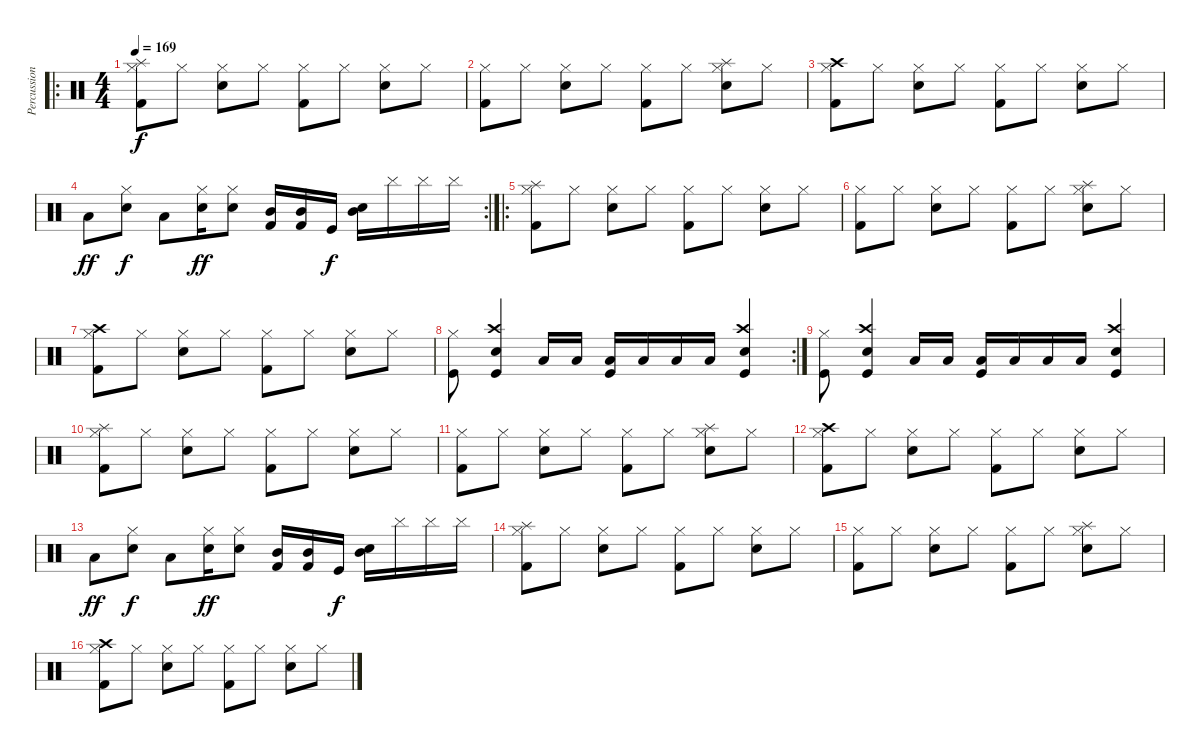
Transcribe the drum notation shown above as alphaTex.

\track ("Percussion" "Percussion") {instrument percussion}
\staff {score}
\articulation defaults
\ro
\ts (4 4)
\tempo 169
\clef neutral
\ks c
("Hi-Hat (closed)" "Kick (hit) 2" "Splash (hit)").8{dy f} "Hi-Hat (closed)".8 ("Hi-Hat (closed)" "Snare (hit) 2").8 "Hi-Hat (closed)".8 ("Hi-Hat (closed)" "Kick (hit) 2").8 "Hi-Hat (closed)".8 ("Hi-Hat (closed)" "Snare (hit) 2").8 "Hi-Hat (closed)".8 |
("Hi-Hat (closed)" "Kick (hit) 2").8 "Hi-Hat (closed)".8 ("Hi-Hat (closed)" "Snare (hit) 2").8 "Hi-Hat (closed)".8 ("Hi-Hat (closed)" "Kick (hit) 2").8 "Hi-Hat (closed)".8 ("Hi-Hat (closed)" "Snare (hit) 2" "Splash (hit)").8 "Hi-Hat (closed)".8 |
("Hi-Hat (closed)" "Kick (hit) 2" "Crash high (hit)").8 "Hi-Hat (closed)".8 ("Hi-Hat (closed)" "Snare (hit) 2").8 "Hi-Hat (closed)".8 ("Hi-Hat (closed)" "Kick (hit) 2").8 "Hi-Hat (closed)".8 ("Hi-Hat (closed)" "Snare (hit) 2").8 "Hi-Hat (closed)".8 |
\rc 2 "Low Tom (hit)".8{dy ff}
("Hi-Hat (closed)" "Electric Snare (hit)").8{dy f} "Low Tom (hit)".8 ("Electric Snare (hit)" "Hi-Hat (closed)").16{dy ff} ("Electric Snare (hit)" "Hi-Hat (closed)").8 ("Kick (hit) 2" "Mid Tom (hit)").16 ("Kick (hit) 2" "Mid Tom (hit)").16 "Kick (hit)".16{dy f} ("Electric Snare (hit)" "Mid Tom (hit)").16 "Cymbal (hit)".16 "Cymbal (hit)".16 "Cymbal (hit)".16 |
\ro
("Hi-Hat (closed)" "Kick (hit) 2" "Splash (hit)").8 "Hi-Hat (closed)".8 ("Hi-Hat (closed)" "Snare (hit) 2").8 "Hi-Hat (closed)".8 ("Hi-Hat (closed)" "Kick (hit) 2").8 "Hi-Hat (closed)".8 ("Hi-Hat (closed)" "Snare (hit) 2").8 "Hi-Hat (closed)".8 |
("Hi-Hat (closed)" "Kick (hit) 2").8 "Hi-Hat (closed)".8 ("Hi-Hat (closed)" "Snare (hit) 2").8 "Hi-Hat (closed)".8 ("Hi-Hat (closed)" "Kick (hit) 2").8 "Hi-Hat (closed)".8 ("Hi-Hat (closed)" "Snare (hit) 2" "Splash (hit)").8 "Hi-Hat (closed)".8 |
("Hi-Hat (closed)" "Kick (hit) 2" "Crash high (hit)").8 "Hi-Hat (closed)".8 ("Hi-Hat (closed)" "Snare (hit) 2").8 "Hi-Hat (closed)".8 ("Hi-Hat (closed)" "Kick (hit) 2").8 "Hi-Hat (closed)".8 ("Hi-Hat (closed)" "Snare (hit) 2").8 "Hi-Hat (closed)".8 |
\rc 2
("Hi-Hat (closed)" "Kick (hit)").8 ("Snare (hit) 2" "Crash high (hit)" "Kick (hit)").4 "Low Floor Tom (hit)".16 "Low Floor Tom (hit)".16 ("Low Floor Tom (hit)" "Kick (hit)").16 "Low Floor Tom (hit)".16 "Low Floor Tom (hit)".16 "Low Floor Tom (hit)".16 ("Crash high (hit)" "Snare (hit) 2" "Kick (hit)").4 |
("Hi-Hat (closed)" "Kick (hit)").8 ("Snare (hit) 2" "Crash high (hit)" "Kick (hit)").4 "Low Floor Tom (hit)".16 "Low Floor Tom (hit)".16 ("Low Floor Tom (hit)" "Kick (hit)").16 "Low Floor Tom (hit)".16 "Low Floor Tom (hit)".16 "Low Floor Tom (hit)".16 ("Crash high (hit)" "Snare (hit) 2" "Kick (hit)").4 |
("Hi-Hat (closed)" "Kick (hit) 2" "Splash (hit)").8 "Hi-Hat (closed)".8 ("Hi-Hat (closed)" "Snare (hit) 2").8 "Hi-Hat (closed)".8 ("Hi-Hat (closed)" "Kick (hit) 2").8 "Hi-Hat (closed)".8 ("Hi-Hat (closed)" "Snare (hit) 2").8 "Hi-Hat (closed)".8 |
("Hi-Hat (closed)" "Kick (hit) 2").8 "Hi-Hat (closed)".8 ("Hi-Hat (closed)" "Snare (hit) 2").8 "Hi-Hat (closed)".8 ("Hi-Hat (closed)" "Kick (hit) 2").8 "Hi-Hat (closed)".8 ("Hi-Hat (closed)" "Snare (hit) 2" "Splash (hit)").8 "Hi-Hat (closed)".8 |
("Hi-Hat (closed)" "Kick (hit) 2" "Crash high (hit)").8 "Hi-Hat (closed)".8 ("Hi-Hat (closed)" "Snare (hit) 2").8 "Hi-Hat (closed)".8 ("Hi-Hat (closed)" "Kick (hit) 2").8 "Hi-Hat (closed)".8 ("Hi-Hat (closed)" "Snare (hit) 2").8 "Hi-Hat (closed)".8 |
"Low Tom (hit)".8{dy ff} ("Hi-Hat (closed)" "Electric Snare (hit)").8{dy f} "Low Tom (hit)".8 ("Electric Snare (hit)" "Hi-Hat (closed)").16{dy ff} ("Electric Snare (hit)" "Hi-Hat (closed)").8 ("Kick (hit) 2" "Mid Tom (hit)").16 ("Kick (hit) 2" "Mid Tom (hit)").16 "Kick (hit)".16{dy f} ("Electric Snare (hit)" "Mid Tom (hit)").16 "Cymbal (hit)".16 "Cymbal (hit)".16 "Cymbal (hit)".16 |
("Hi-Hat (closed)" "Kick (hit) 2" "Splash (hit)").8 "Hi-Hat (closed)".8 ("Hi-Hat (closed)" "Snare (hit) 2").8 "Hi-Hat (closed)".8 ("Hi-Hat (closed)" "Kick (hit) 2").8 "Hi-Hat (closed)".8 ("Hi-Hat (closed)" "Snare (hit) 2").8 "Hi-Hat (closed)".8 |
("Hi-Hat (closed)" "Kick (hit) 2").8 "Hi-Hat (closed)".8 ("Hi-Hat (closed)" "Snare (hit) 2").8 "Hi-Hat (closed)".8 ("Hi-Hat (closed)" "Kick (hit) 2").8 "Hi-Hat (closed)".8 ("Hi-Hat (closed)" "Snare (hit) 2" "Splash (hit)").8 "Hi-Hat (closed)".8 |
("Hi-Hat (closed)" "Kick (hit) 2" "Crash high (hit)").8 "Hi-Hat (closed)".8 ("Hi-Hat (closed)" "Snare (hit) 2").8 "Hi-Hat (closed)".8 ("Hi-Hat (closed)" "Kick (hit) 2").8 "Hi-Hat (closed)".8 ("Hi-Hat (closed)" "Snare (hit) 2").8 "Hi-Hat (closed)".8
